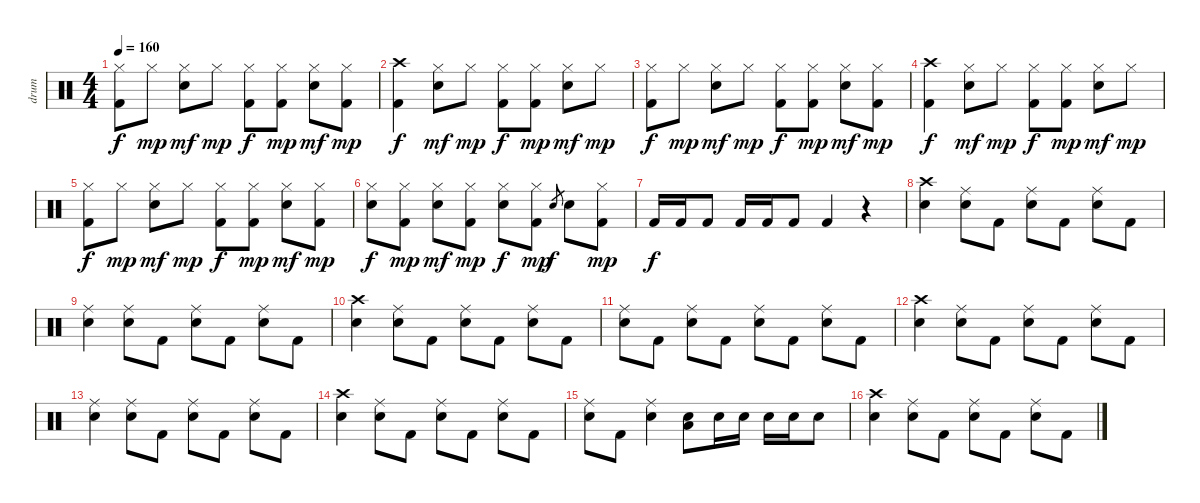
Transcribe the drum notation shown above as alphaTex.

\track ("drum" "drum") {instrument percussion}
\staff {score}
\articulation defaults
\ts (4 4)
\tempo 160
\clef neutral
\ks c
("Hi-Hat (closed)" "Kick (hit) 2").8{dy f} "Hi-Hat (closed)".8{dy mp} ("Hi-Hat (closed)" "Electric Snare (hit)").8{dy mf} "Hi-Hat (closed)".8{dy mp} ("Hi-Hat (closed)" "Kick (hit) 2").8{dy f} ("Hi-Hat (closed)" "Kick (hit) 2").8{dy mp} ("Hi-Hat (closed)" "Electric Snare (hit)").8{dy mf} ("Hi-Hat (closed)" "Kick (hit) 2").8{dy mp} |
("Crash high (hit)" "Kick (hit) 2").4{dy f} ("Hi-Hat (closed)" "Electric Snare (hit)").8{dy mf} "Hi-Hat (closed)".8{dy mp} ("Hi-Hat (closed)" "Kick (hit) 2").8{dy f} ("Hi-Hat (closed)" "Kick (hit) 2").8{dy mp} ("Hi-Hat (closed)" "Electric Snare (hit)").8{dy mf} "Hi-Hat (closed)".8{dy mp} |
("Hi-Hat (closed)" "Kick (hit) 2").8{dy f} "Hi-Hat (closed)".8{dy mp} ("Hi-Hat (closed)" "Electric Snare (hit)").8{dy mf} "Hi-Hat (closed)".8{dy mp} ("Hi-Hat (closed)" "Kick (hit) 2").8{dy f} ("Hi-Hat (closed)" "Kick (hit) 2").8{dy mp} ("Hi-Hat (closed)" "Electric Snare (hit)").8{dy mf} ("Hi-Hat (closed)" "Kick (hit) 2").8{dy mp} |
("Crash high (hit)" "Kick (hit) 2").4{dy f} ("Hi-Hat (closed)" "Electric Snare (hit)").8{dy mf} "Hi-Hat (closed)".8{dy mp} ("Hi-Hat (closed)" "Kick (hit) 2").8{dy f} ("Hi-Hat (closed)" "Kick (hit) 2").8{dy mp} ("Hi-Hat (closed)" "Electric Snare (hit)").8{dy mf} "Hi-Hat (closed)".8{dy mp} |
("Hi-Hat (closed)" "Kick (hit) 2").8{dy f} "Hi-Hat (closed)".8{dy mp} ("Hi-Hat (closed)" "Electric Snare (hit)").8{dy mf} "Hi-Hat (closed)".8{dy mp} ("Hi-Hat (closed)" "Kick (hit) 2").8{dy f} ("Hi-Hat (closed)" "Kick (hit) 2").8{dy mp} ("Hi-Hat (closed)" "Electric Snare (hit)").8{dy mf} ("Hi-Hat (closed)" "Kick (hit) 2").8{dy mp} |
("Hi-Hat (closed)" "Electric Snare (hit)").8{dy f} ("Hi-Hat (closed)" "Kick (hit) 2").8{dy mp} ("Hi-Hat (closed)" "Electric Snare (hit)").8{dy mf} ("Hi-Hat (closed)" "Kick (hit) 2").8{dy mp} ("Hi-Hat (closed)" "Electric Snare (hit)").8{dy f} ("Hi-Hat (closed)" "Kick (hit) 2").8{dy mp} "Electric Snare (hit)".8{gr dy f} "Electric Snare (hit)".8 ("Hi-Hat (closed)" "Kick (hit) 2").8{dy mp} |
"Kick (hit) 2".16{dy f} "Kick (hit) 2".16 "Kick (hit) 2".8 "Kick (hit) 2".16 "Kick (hit) 2".16 "Kick (hit) 2".8 "Kick (hit) 2".4 r.4 |
("Crash high (hit)" "Electric Snare (hit)").4 ("Ride (middle)" "Electric Snare (hit)").8 "Kick (hit) 2".8 ("Ride (middle)" "Electric Snare (hit)").8 "Kick (hit) 2".8 ("Ride (middle)" "Electric Snare (hit)").8 "Kick (hit) 2".8 |
("Ride (middle)" "Electric Snare (hit)").4 ("Ride (middle)" "Electric Snare (hit)").8 "Kick (hit) 2".8 ("Ride (middle)" "Electric Snare (hit)").8 "Kick (hit) 2".8 ("Ride (middle)" "Electric Snare (hit)").8 "Kick (hit) 2".8 |
("Crash high (hit)" "Electric Snare (hit)").4 ("Ride (middle)" "Electric Snare (hit)").8 "Kick (hit) 2".8 ("Ride (middle)" "Electric Snare (hit)").8 "Kick (hit) 2".8 ("Ride (middle)" "Electric Snare (hit)").8 "Kick (hit) 2".8 |
("Ride (middle)" "Electric Snare (hit)").8 "Kick (hit) 2".8 ("Ride (middle)" "Electric Snare (hit)").8 "Kick (hit) 2".8 ("Ride (middle)" "Electric Snare (hit)").8 "Kick (hit) 2".8 ("Ride (middle)" "Electric Snare (hit)").8 "Kick (hit) 2".8 |
("Crash high (hit)" "Electric Snare (hit)").4 ("Ride (middle)" "Electric Snare (hit)").8 "Kick (hit) 2".8 ("Ride (middle)" "Electric Snare (hit)").8 "Kick (hit) 2".8 ("Ride (middle)" "Electric Snare (hit)").8 "Kick (hit) 2".8 |
("Ride (middle)" "Electric Snare (hit)").4 ("Ride (middle)" "Electric Snare (hit)").8 "Kick (hit) 2".8 ("Ride (middle)" "Electric Snare (hit)").8 "Kick (hit) 2".8 ("Ride (middle)" "Electric Snare (hit)").8 "Kick (hit) 2".8 |
("Crash high (hit)" "Electric Snare (hit)").4 ("Ride (middle)" "Electric Snare (hit)").8 "Kick (hit) 2".8 ("Ride (middle)" "Electric Snare (hit)").8 "Kick (hit) 2".8 ("Ride (middle)" "Electric Snare (hit)").8 "Kick (hit) 2".8 |
("Ride (middle)" "Electric Snare (hit)").8 "Kick (hit) 2".8 ("Ride (middle)" "Electric Snare (hit)").4 ("Electric Snare (hit)" "Low Tom (hit)").8 "Electric Snare (hit)".16 "Electric Snare (hit)".16 "Electric Snare (hit)".16 "Electric Snare (hit)".16 "Electric Snare (hit)".8 |
("Crash high (hit)" "Electric Snare (hit)").4 ("Ride (middle)" "Electric Snare (hit)").8 "Kick (hit) 2".8 ("Ride (middle)" "Electric Snare (hit)").8 "Kick (hit) 2".8 ("Ride (middle)" "Electric Snare (hit)").8 "Kick (hit) 2".8
